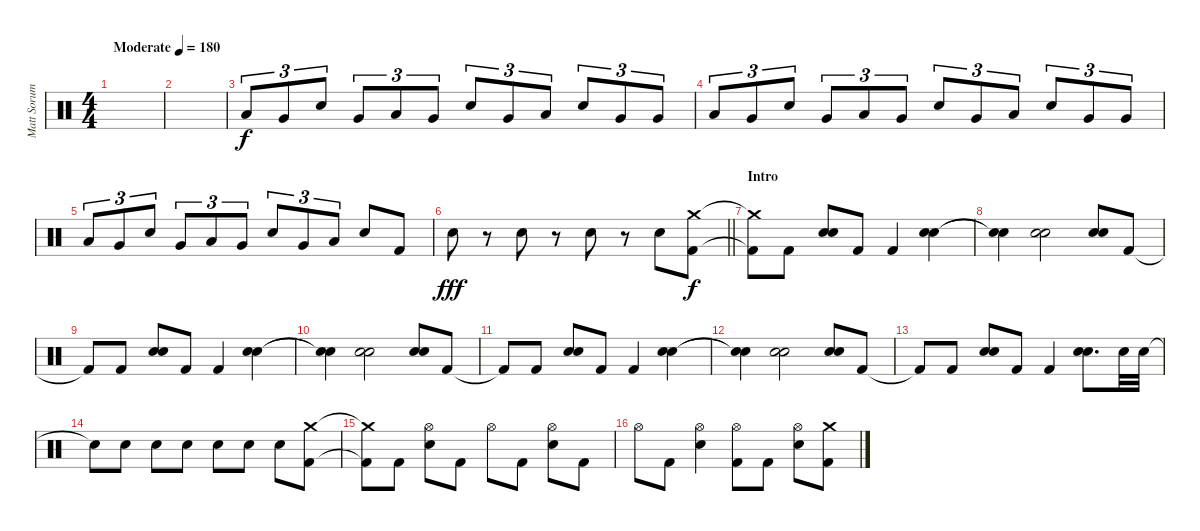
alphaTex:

\track ("Matt Sorum" "Matt Sorum") {instrument percussion}
\staff {score}
\articulation defaults
\ts (4 4)
\tempo (180 "Moderate")
\clef neutral
\ks c
|
|
"Low Floor Tom (hit)".8{tu (3 2)} "Very Low Tom (hit)".8{tu (3 2)} "Electric Snare (hit)".8{tu (3 2)} "Very Low Tom (hit)".8{tu (3 2)} "Low Floor Tom (hit)".8{tu (3 2)} "Very Low Tom (hit)".8{tu (3 2)} "Electric Snare (hit)".8{tu (3 2)} "Very Low Tom (hit)".8{tu (3 2)} "Low Floor Tom (hit)".8{tu (3 2)} "Electric Snare (hit)".8{tu (3 2)} "Very Low Tom (hit)".8{tu (3 2)} "Very Low Tom (hit)".8{tu (3 2)} |
"Low Floor Tom (hit)".8{tu (3 2)} "Very Low Tom (hit)".8{tu (3 2)} "Electric Snare (hit)".8{tu (3 2)} "Very Low Tom (hit)".8{tu (3 2)} "Low Floor Tom (hit)".8{tu (3 2)} "Very Low Tom (hit)".8{tu (3 2)} "Electric Snare (hit)".8{tu (3 2)} "Very Low Tom (hit)".8{tu (3 2)} "Low Floor Tom (hit)".8{tu (3 2)} "Electric Snare (hit)".8{tu (3 2)} "Very Low Tom (hit)".8{tu (3 2)} "Very Low Tom (hit)".8{tu (3 2)} |
"Low Floor Tom (hit)".8{tu (3 2)} "Very Low Tom (hit)".8{tu (3 2)} "Electric Snare (hit)".8{tu (3 2)} "Very Low Tom (hit)".8{tu (3 2)} "Low Floor Tom (hit)".8{tu (3 2)} "Very Low Tom (hit)".8{tu (3 2)} "Electric Snare (hit)".8{tu (3 2)} "Very Low Tom (hit)".8{tu (3 2)} "Low Floor Tom (hit)".8{tu (3 2)} "Electric Snare (hit)".8 "Kick (hit) 2".8{dy f} |
\barLineRight lightlight "Electric Snare (hit)".8{dy fff}
r.8 "Electric Snare (hit)".8 r.8 "Electric Snare (hit)".8 r.8 "Electric Snare (hit)".8 ("Crash medium (hit)" "Kick (hit) 2").8{dy f} |
\section ("" "Intro")
("Crash medium (hit)"{t} "Kick (hit) 2"{t}).8 "Kick (hit) 2".8 ("Electric Snare (hit)" "Electric Snare (hit)").8 "Kick (hit) 2".8 "Kick (hit) 2".4 ("Electric Snare (hit)" "Electric Snare (hit)").4 |
("Snare (hit)"{t} "Snare (hit)"{t}).4 ("Electric Snare (hit)" "Electric Snare (hit)").2 ("Electric Snare (hit)" "Electric Snare (hit)").8 "Kick (hit) 2".8 |
"Kick (hit) 2"{t}.8 "Kick (hit) 2".8 ("Electric Snare (hit)" "Electric Snare (hit)").8 "Kick (hit) 2".8 "Kick (hit) 2".4 ("Electric Snare (hit)" "Electric Snare (hit)").4 |
("Snare (hit)"{t} "Snare (hit)"{t}).4 ("Electric Snare (hit)" "Electric Snare (hit)").2 ("Electric Snare (hit)" "Electric Snare (hit)").8 "Kick (hit) 2".8 |
"Kick (hit) 2"{t}.8 "Kick (hit) 2".8 ("Electric Snare (hit)" "Electric Snare (hit)").8 "Kick (hit) 2".8 "Kick (hit) 2".4 ("Electric Snare (hit)" "Electric Snare (hit)").4 |
("Snare (hit)"{t} "Snare (hit)"{t}).4 ("Electric Snare (hit)" "Electric Snare (hit)").2 ("Electric Snare (hit)" "Electric Snare (hit)").8 "Kick (hit) 2".8 |
"Kick (hit) 2"{t}.8 "Kick (hit) 2".8 ("Electric Snare (hit)" "Electric Snare (hit)").8 "Kick (hit) 2".8 "Kick (hit) 2".4 ("Electric Snare (hit)" "Electric Snare (hit)").8{d} "Electric Snare (hit)".32 "Electric Snare (hit)".32 |
"Electric Snare (hit)"{t}.8 "Electric Snare (hit)".8 "Electric Snare (hit)".8 "Electric Snare (hit)".8 "Electric Snare (hit)".8 "Electric Snare (hit)".8 "Electric Snare (hit)".8 ("Crash medium (hit)" "Kick (hit) 2").8 |
("Crash medium (hit)"{t} "Kick (hit) 2"{t}).8 "Kick (hit) 2".8 ("Hi-Hat (open)" "Electric Snare (hit)").8 "Kick (hit) 2".8 "Hi-Hat (open)".8 "Kick (hit) 2".8 ("Hi-Hat (open)" "Electric Snare (hit)").8 "Kick (hit) 2".8 |
"Hi-Hat (open)".8 "Kick (hit) 2".8 ("Hi-Hat (open)" "Electric Snare (hit)").4 ("Hi-Hat (open)" "Kick (hit) 2").8 "Kick (hit) 2".8 ("Hi-Hat (open)" "Electric Snare (hit)").8 ("Crash medium (hit)" "Kick (hit) 2").8
